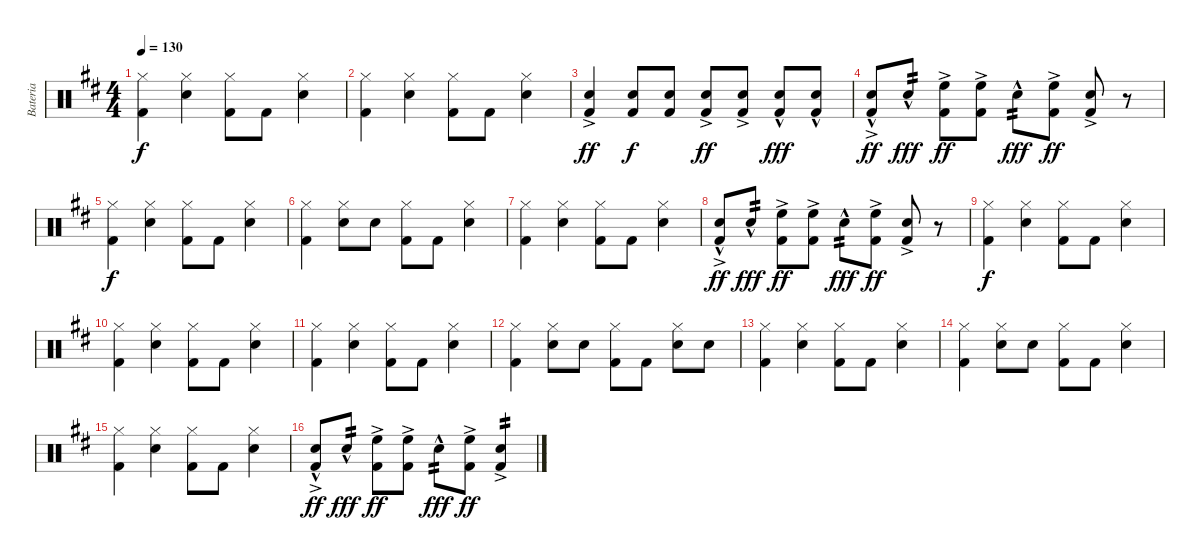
\track ("Bateria" "Bateria") {instrument percussion}
\staff {score}
\articulation defaults
\ts (4 4)
\tempo 130
\clef neutral
\ks d
("Hi-Hat (closed)" "Kick (hit) 2").4{dy f} ("Hi-Hat (closed)" "Electric Snare (hit)").4 ("Hi-Hat (closed)" "Kick (hit) 2").8 "Kick (hit) 2".8 ("Hi-Hat (closed)" "Electric Snare (hit)").4 |
("Hi-Hat (closed)" "Kick (hit) 2").4 ("Hi-Hat (closed)" "Electric Snare (hit)").4 ("Hi-Hat (closed)" "Kick (hit) 2").8 "Kick (hit) 2".8 ("Hi-Hat (closed)" "Electric Snare (hit)").4 |
("Electric Snare (hit)"{ac} "Kick (hit) 2"{ac}).4{dy ff} ("Electric Snare (hit)" "Kick (hit) 2").8{dy f} ("Electric Snare (hit)" "Kick (hit) 2").8 ("Electric Snare (hit)"{ac} "Kick (hit) 2"{ac}).8{dy ff} ("Electric Snare (hit)"{ac} "Kick (hit) 2"{ac}).8 ("Electric Snare (hit)"{hac} "Kick (hit) 2"{hac}).8{dy fff} ("Electric Snare (hit)"{hac} "Kick (hit) 2"{hac}).8 |
("Electric Snare (hit)"{hac} "Kick (hit) 2"{ac}).8{dy ff} "Electric Snare (hit)"{hac}.8{tp 2 dy fff} ("High Floor Tom (hit)" "Kick (hit) 2"{ac}).8{dy ff} ("High Floor Tom (hit)" "Kick (hit) 2"{ac}).8 "Electric Snare (hit)"{hac}.8{tp 2 dy fff} ("High Floor Tom (hit)" "Kick (hit) 2"{ac}).8{dy ff} ("Electric Snare (hit)" "Kick (hit) 2"{ac}).8 r.8 |
("Hi-Hat (closed)" "Kick (hit) 2").4{dy f} ("Hi-Hat (closed)" "Electric Snare (hit)").4 ("Hi-Hat (closed)" "Kick (hit) 2").8 "Kick (hit) 2".8 ("Hi-Hat (closed)" "Electric Snare (hit)").4 |
("Hi-Hat (closed)" "Kick (hit) 2").4 ("Hi-Hat (closed)" "Electric Snare (hit)").8 "Electric Snare (hit)".8 ("Hi-Hat (closed)" "Kick (hit) 2").8 "Kick (hit) 2".8 ("Hi-Hat (closed)" "Electric Snare (hit)").4 |
("Hi-Hat (closed)" "Kick (hit) 2").4 ("Hi-Hat (closed)" "Electric Snare (hit)").4 ("Hi-Hat (closed)" "Kick (hit) 2").8 "Kick (hit) 2".8 ("Hi-Hat (closed)" "Electric Snare (hit)").4 |
("Electric Snare (hit)"{hac} "Kick (hit) 2"{ac}).8{dy ff} "Electric Snare (hit)"{hac}.8{tp 2 dy fff} ("High Floor Tom (hit)" "Kick (hit) 2"{ac}).8{dy ff} ("High Floor Tom (hit)" "Kick (hit) 2"{ac}).8 "Electric Snare (hit)"{hac}.8{tp 2 dy fff} ("High Floor Tom (hit)" "Kick (hit) 2"{ac}).8{dy ff} ("Electric Snare (hit)" "Kick (hit) 2"{ac}).8 r.8 |
("Hi-Hat (closed)" "Kick (hit) 2").4{dy f} ("Hi-Hat (closed)" "Electric Snare (hit)").4 ("Hi-Hat (closed)" "Kick (hit) 2").8 "Kick (hit) 2".8 ("Hi-Hat (closed)" "Electric Snare (hit)").4 |
("Hi-Hat (closed)" "Kick (hit) 2").4 ("Hi-Hat (closed)" "Electric Snare (hit)").4 ("Hi-Hat (closed)" "Kick (hit) 2").8 "Kick (hit) 2".8 ("Hi-Hat (closed)" "Electric Snare (hit)").4 |
("Hi-Hat (closed)" "Kick (hit) 2").4 ("Hi-Hat (closed)" "Electric Snare (hit)").4 ("Hi-Hat (closed)" "Kick (hit) 2").8 "Kick (hit) 2".8 ("Hi-Hat (closed)" "Electric Snare (hit)").4 |
("Hi-Hat (closed)" "Kick (hit) 2").4 ("Hi-Hat (closed)" "Electric Snare (hit)").8 "Electric Snare (hit)".8 ("Hi-Hat (closed)" "Kick (hit) 2").8 "Kick (hit) 2".8 ("Hi-Hat (closed)" "Electric Snare (hit)").8 "Electric Snare (hit)".8 |
("Hi-Hat (closed)" "Kick (hit) 2").4 ("Hi-Hat (closed)" "Electric Snare (hit)").4 ("Hi-Hat (closed)" "Kick (hit) 2").8 "Kick (hit) 2".8 ("Hi-Hat (closed)" "Electric Snare (hit)").4 |
("Hi-Hat (closed)" "Kick (hit) 2").4 ("Hi-Hat (closed)" "Electric Snare (hit)").8 "Electric Snare (hit)".8 ("Hi-Hat (closed)" "Kick (hit) 2").8 "Kick (hit) 2".8 ("Hi-Hat (closed)" "Electric Snare (hit)").4 |
("Hi-Hat (closed)" "Kick (hit) 2").4 ("Hi-Hat (closed)" "Electric Snare (hit)").4 ("Hi-Hat (closed)" "Kick (hit) 2").8 "Kick (hit) 2".8 ("Hi-Hat (closed)" "Electric Snare (hit)").4 |
("Electric Snare (hit)"{hac} "Kick (hit) 2"{ac}).8{dy ff} "Electric Snare (hit)"{hac}.8{tp 2 dy fff} ("High Floor Tom (hit)" "Kick (hit) 2"{ac}).8{dy ff} ("High Floor Tom (hit)" "Kick (hit) 2"{ac}).8 "Electric Snare (hit)"{hac}.8{tp 2 dy fff} ("High Floor Tom (hit)" "Kick (hit) 2"{ac}).8{dy ff} ("Electric Snare (hit)" "Kick (hit) 2"{ac}).4{tp 2}
